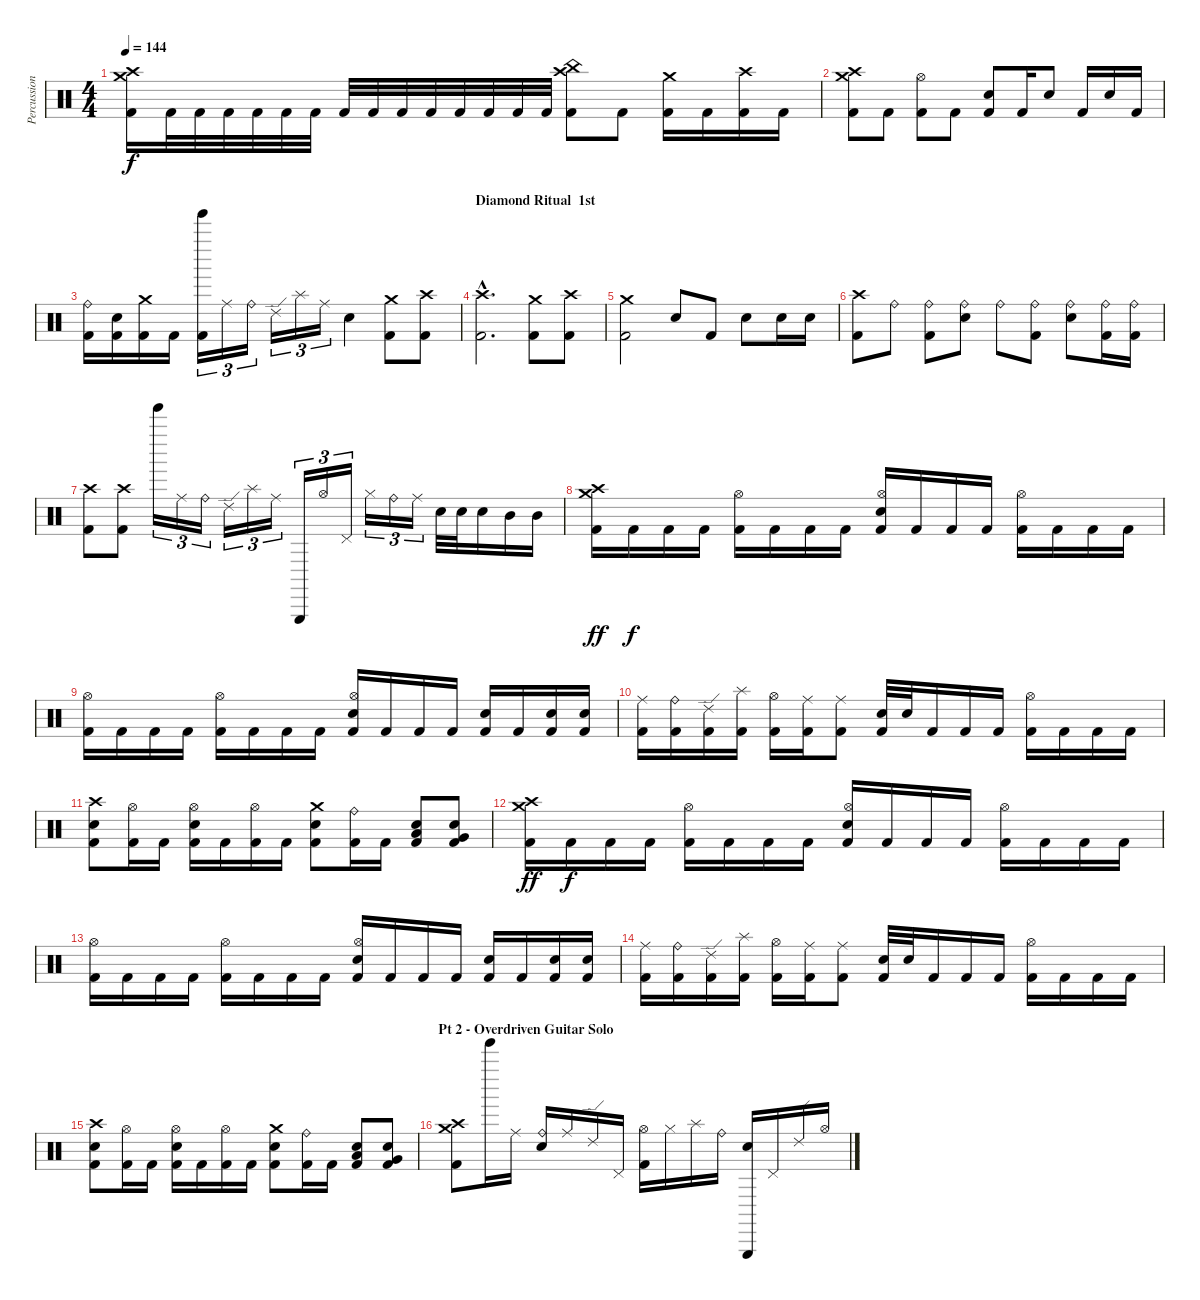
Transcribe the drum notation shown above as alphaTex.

\track ("Percussion" "Percussion") {instrument percussion}
\staff {score}
\articulation defaults
\ts (4 4)
\tempo 144
\clef neutral
\ks c
("Crash medium (hit)" "Crash high (hit)" "Kick (hit) 2").16{dy f} "Kick (hit) 2".32 "Kick (hit) 2".32 "Kick (hit) 2".32 "Kick (hit) 2".32 "Kick (hit) 2".32 "Kick (hit) 2".32 "Kick (hit) 2".32 "Kick (hit) 2".32 "Kick (hit) 2".32 "Kick (hit) 2".32 "Kick (hit) 2".32 "Kick (hit) 2".32 "Kick (hit) 2".32 "Kick (hit) 2".32 ("Crash high (hit)" "China (hit)" "Kick (hit) 2").8 "Kick (hit) 2".8 ("Crash medium (hit)" "Kick (hit) 2").16 "Kick (hit) 2".16 ("Crash high (hit)" "Kick (hit) 2").16 "Kick (hit) 2".16 |
("Crash medium (hit)" "Crash high (hit)" "Kick (hit) 2").8 "Kick (hit) 2".8 ("Hi-Hat (open)" "Kick (hit) 2").8 "Kick (hit) 2".8 ("Electric Snare (hit)" "Kick (hit) 2").8 "Kick (hit) 2".16 "Electric Snare (hit)".8 "Kick (hit) 2".16 "Electric Snare (hit)".16 "Kick (hit) 2".16 |
("Ride (bell)" "Kick (hit) 2").16 ("Electric Snare (hit)" "Kick (hit) 2").16 ("Crash medium (hit)" "Kick (hit) 2").16 "Kick (hit) 2".16 ("Tinkle Bell (hit)" "Kick (hit) 2").16{tu (3 2)} "Ride (middle)".16{tu (3 2)} "Ride (bell)".16{tu (3 2)} "Ride (edge) 2".16{tu (3 2)} "Splash (hit)".16{tu (3 2)} "Ride (middle)".16{tu (3 2)} "Electric Snare (hit)".4 ("Crash medium (hit)" "Kick (hit) 2").8 ("Crash high (hit)" "Kick (hit) 2").8 |
\section ("" "Diamond Ritual  1st")
("Crash high (hit)"{hac} "Kick (hit) 2"{hac}).2{d} ("Crash medium (hit)" "Kick (hit) 2").8 ("Crash high (hit)" "Kick (hit) 2").8 |
("Crash medium (hit)" "Kick (hit) 2").2 "Electric Snare (hit)".8 "Kick (hit) 2".8 "Electric Snare (hit)".8 "Electric Snare (hit)".16 "Electric Snare (hit)".16 |
("Crash high (hit)" "Kick (hit) 2").8 "Ride (bell)".8 ("Ride (bell)" "Kick (hit) 2").8 ("Ride (bell)" "Electric Snare (hit)").8 "Ride (bell)".8 ("Ride (bell)" "Kick (hit) 2").8 ("Ride (bell)" "Electric Snare (hit)").8 ("Ride (bell)" "Kick (hit) 2").16 ("Ride (bell)" "Kick (hit) 2").16 |
("Crash high (hit)" "Kick (hit) 2").8 ("Crash high (hit)" "Kick (hit) 2").8 "Tinkle Bell (hit)".16{tu (3 2)} "Ride (middle)".16{tu (3 2)} "Ride (bell)".16{tu (3 2)} "Ride (edge) 2".16{tu (3 2)} "Splash (hit)".16{tu (3 2)} "Ride (middle)".16{tu (3 2)} "Triangle (hit)".16{tu (3 2)} "Hi-Hat (open)".16{tu (3 2)} "Pedal Hi-Hat (hit)".16{tu (3 2)} "Hi-Hat (closed)".16{tu (3 2)} "Ride (bell)".16{tu (3 2)} "Ride (middle)".16{tu (3 2)} "Electric Snare (hit)".32 "Electric Snare (hit)".32 "Electric Snare (hit)".16 "Mid Tom (hit)".16 "Mid Tom (hit)".16 |
("Crash high (hit)" "Crash medium (hit)" "Kick (hit) 2").16{dy ff} "Kick (hit) 2".16{dy f} "Kick (hit) 2".16 "Kick (hit) 2".16 ("Hi-Hat (open)" "Kick (hit) 2").16 "Kick (hit) 2".16 "Kick (hit) 2".16 "Kick (hit) 2".16 ("Hi-Hat (open)" "Electric Snare (hit)" "Kick (hit) 2").16 "Kick (hit) 2".16 "Kick (hit) 2".16 "Kick (hit) 2".16 ("Hi-Hat (open)" "Kick (hit) 2").16 "Kick (hit) 2".16 "Kick (hit) 2".16 "Kick (hit) 2".16 |
("Hi-Hat (open)" "Kick (hit) 2").16 "Kick (hit) 2".16 "Kick (hit) 2".16 "Kick (hit) 2".16 ("Hi-Hat (open)" "Kick (hit) 2").16 "Kick (hit) 2".16 "Kick (hit) 2".16 "Kick (hit) 2".16 ("Hi-Hat (open)" "Electric Snare (hit)" "Kick (hit) 2").16 "Kick (hit) 2".16 "Kick (hit) 2".16 "Kick (hit) 2".16 ("Electric Snare (hit)" "Kick (hit) 2").16 "Kick (hit) 2".16 ("Electric Snare (hit)" "Kick (hit) 2").16 ("Electric Snare (hit)" "Kick (hit) 2").16 |
("Ride (middle)" "Kick (hit) 2").16 ("Ride (bell)" "Kick (hit) 2").16 ("Ride (edge) 2" "Kick (hit) 2").16 ("Splash (hit)" "Kick (hit) 2").16 ("Hi-Hat (open)" "Kick (hit) 2").16 ("Ride (middle)" "Kick (hit) 2").16 ("Ride (middle)" "Kick (hit) 2").8 ("Electric Snare (hit)" "Kick (hit) 2").32 "Electric Snare (hit)".32 "Kick (hit) 2".16 "Kick (hit) 2".16 "Kick (hit) 2".16 ("Hi-Hat (open)" "Kick (hit) 2").16 "Kick (hit) 2".16 "Kick (hit) 2".16 "Kick (hit) 2".16 |
("Crash high (hit)" "Electric Snare (hit)" "Kick (hit) 2").8 ("Hi-Hat (open)" "Kick (hit) 2").16 "Kick (hit) 2".16 ("Hi-Hat (open)" "Electric Snare (hit)" "Kick (hit) 2").16 "Kick (hit) 2".16 ("Hi-Hat (open)" "Kick (hit) 2").16 "Kick (hit) 2".16 ("Crash medium (hit)" "Electric Snare (hit)" "Kick (hit) 2").8 ("Ride (bell)" "Kick (hit) 2").16 "Kick (hit) 2".16 ("Low Tom (hit)" "Electric Snare (hit)" "Kick (hit) 2").8 ("Very Low Tom (hit)" "Electric Snare (hit)" "Kick (hit) 2").8 |
("Crash high (hit)" "Crash medium (hit)" "Kick (hit) 2").16{dy ff} "Kick (hit) 2".16{dy f} "Kick (hit) 2".16 "Kick (hit) 2".16 ("Hi-Hat (open)" "Kick (hit) 2").16 "Kick (hit) 2".16 "Kick (hit) 2".16 "Kick (hit) 2".16 ("Hi-Hat (open)" "Electric Snare (hit)" "Kick (hit) 2").16 "Kick (hit) 2".16 "Kick (hit) 2".16 "Kick (hit) 2".16 ("Hi-Hat (open)" "Kick (hit) 2").16 "Kick (hit) 2".16 "Kick (hit) 2".16 "Kick (hit) 2".16 |
("Hi-Hat (open)" "Kick (hit) 2").16 "Kick (hit) 2".16 "Kick (hit) 2".16 "Kick (hit) 2".16 ("Hi-Hat (open)" "Kick (hit) 2").16 "Kick (hit) 2".16 "Kick (hit) 2".16 "Kick (hit) 2".16 ("Hi-Hat (open)" "Electric Snare (hit)" "Kick (hit) 2").16 "Kick (hit) 2".16 "Kick (hit) 2".16 "Kick (hit) 2".16 ("Electric Snare (hit)" "Kick (hit) 2").16 "Kick (hit) 2".16 ("Electric Snare (hit)" "Kick (hit) 2").16 ("Electric Snare (hit)" "Kick (hit) 2").16 |
("Ride (middle)" "Kick (hit) 2").16 ("Ride (bell)" "Kick (hit) 2").16 ("Ride (edge) 2" "Kick (hit) 2").16 ("Splash (hit)" "Kick (hit) 2").16 ("Hi-Hat (open)" "Kick (hit) 2").16 ("Ride (middle)" "Kick (hit) 2").16 ("Ride (middle)" "Kick (hit) 2").8 ("Electric Snare (hit)" "Kick (hit) 2").32 "Electric Snare (hit)".32 "Kick (hit) 2".16 "Kick (hit) 2".16 "Kick (hit) 2".16 ("Hi-Hat (open)" "Kick (hit) 2").16 "Kick (hit) 2".16 "Kick (hit) 2".16 "Kick (hit) 2".16 |
("Crash high (hit)" "Electric Snare (hit)" "Kick (hit) 2").8 ("Hi-Hat (open)" "Kick (hit) 2").16 "Kick (hit) 2".16 ("Hi-Hat (open)" "Electric Snare (hit)" "Kick (hit) 2").16 "Kick (hit) 2".16 ("Hi-Hat (open)" "Kick (hit) 2").16 "Kick (hit) 2".16 ("Crash medium (hit)" "Electric Snare (hit)" "Kick (hit) 2").8 ("Ride (bell)" "Kick (hit) 2").16 "Kick (hit) 2".16 ("Low Tom (hit)" "Electric Snare (hit)" "Kick (hit) 2").8 ("Very Low Tom (hit)" "Electric Snare (hit)" "Kick (hit) 2").8 |
\section ("" "Pt 2 - Overdriven Guitar Solo")
("Crash medium (hit)" "Crash high (hit)" "Kick (hit) 2").8 "Tinkle Bell (hit)".16 "Ride (middle)".16 ("Ride (bell)" "Electric Snare (hit)").16 "Ride (middle)".16 "Ride (edge) 2".16 "Pedal Hi-Hat (hit)".16 ("Hi-Hat (open)" "Kick (hit) 2").16 "Hi-Hat (closed)".16 "Splash (hit)".16 "Ride (bell)".16 ("Triangle (hit)" "Electric Snare (hit)").16 "Pedal Hi-Hat (hit)".16 "Ride (edge) 2".16 "Hi-Hat (open)".16
